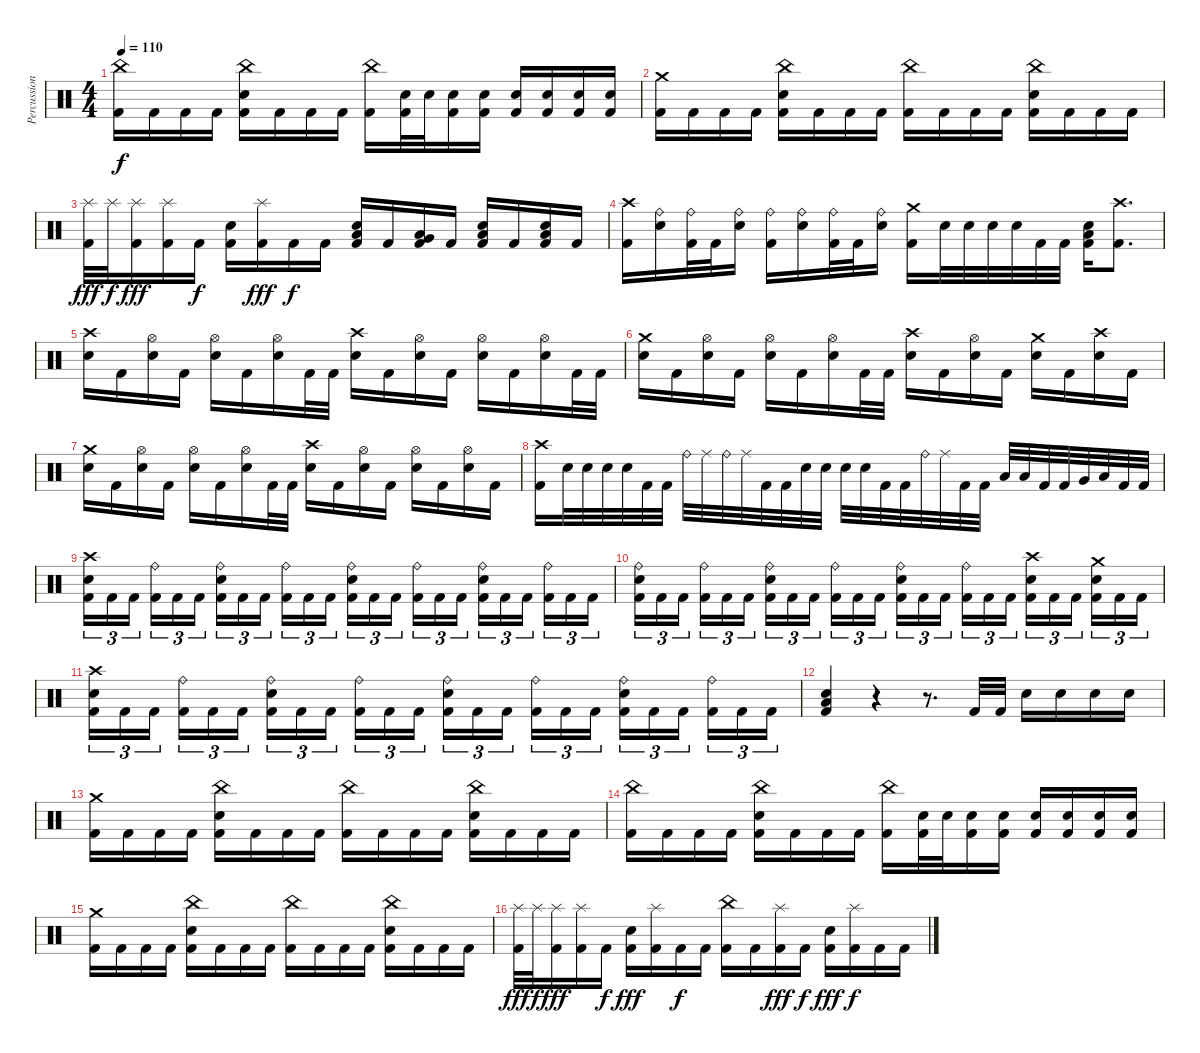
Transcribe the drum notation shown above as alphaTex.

\track ("Percussion" "Percussion") {instrument percussion}
\staff {score}
\articulation defaults
\ts (4 4)
\tempo 110
\clef neutral
\ks c
("China (hit)" "Kick (hit) 2").16{dy f} "Kick (hit) 2".16 "Kick (hit) 2".16 "Kick (hit) 2".16 ("China (hit)" "Electric Snare (hit)" "Kick (hit) 2").16 "Kick (hit) 2".16 "Kick (hit) 2".16 "Kick (hit) 2".16 ("China (hit)" "Kick (hit) 2").16 ("Electric Snare (hit)" "Kick (hit) 2").32 "Electric Snare (hit)".32 ("Electric Snare (hit)" "Kick (hit) 2").16 ("Electric Snare (hit)" "Kick (hit) 2").16 ("Electric Snare (hit)" "Kick (hit) 2").16 ("Electric Snare (hit)" "Kick (hit) 2").16 ("Electric Snare (hit)" "Kick (hit) 2").16 ("Electric Snare (hit)" "Kick (hit) 2").16 |
("Crash medium (hit)" "Kick (hit) 2").16 "Kick (hit) 2".16 "Kick (hit) 2".16 "Kick (hit) 2".16 ("China (hit)" "Electric Snare (hit)" "Kick (hit) 2").16 "Kick (hit) 2".16 "Kick (hit) 2".16 "Kick (hit) 2".16 ("China (hit)" "Kick (hit) 2").16 "Kick (hit) 2".16 "Kick (hit) 2".16 "Kick (hit) 2".16 ("China (hit)" "Electric Snare (hit)" "Kick (hit) 2").16 "Kick (hit) 2".16 "Kick (hit) 2".16 "Kick (hit) 2".16 |
("Splash (hit)" "Kick (hit) 2").32{dy fff} "Splash (hit)".32{dy f} ("Splash (hit)" "Kick (hit) 2").16{dy fff} ("Splash (hit)" "Kick (hit) 2").16 "Kick (hit) 2".16{dy f} ("Electric Snare (hit)" "Kick (hit) 2").16 ("Splash (hit)" "Kick (hit) 2").16{dy fff} "Kick (hit) 2".16{dy f} "Kick (hit) 2".16 ("Electric Snare (hit)" "Low Tom (hit)" "Kick (hit) 2").16 "Kick (hit) 2".16 ("Very Low Tom (hit)" "Low Floor Tom (hit)" "Kick (hit) 2").16 "Kick (hit) 2".16 ("Electric Snare (hit)" "Low Floor Tom (hit)" "Kick (hit) 2").16 "Kick (hit) 2".16 ("Electric Snare (hit)" "Low Floor Tom (hit)" "Kick (hit) 2").16 "Kick (hit) 2".16 |
("Crash high (hit)" "Kick (hit) 2").16 ("Ride (bell)" "Electric Snare (hit)").16 ("Ride (bell)" "Kick (hit) 2").32 "Kick (hit) 2".32 ("Ride (bell)" "Electric Snare (hit)").16 ("Ride (bell)" "Kick (hit) 2").16 ("Ride (bell)" "Electric Snare (hit)").16 ("Ride (bell)" "Kick (hit) 2").32 "Kick (hit) 2".32 ("Ride (bell)" "Electric Snare (hit)").16 ("Crash medium (hit)" "Kick (hit) 2").16 "Electric Snare (hit)".32 "Electric Snare (hit)".32 "Electric Snare (hit)".32 "Electric Snare (hit)".32 "Kick (hit) 2".32 "Kick (hit) 2".32 ("Electric Snare (hit)" "Low Floor Tom (hit)" "Kick (hit) 2").16 ("Crash high (hit)" "Kick (hit) 2").8{d} |
("Crash high (hit)" "Electric Snare (hit)").16 "Kick (hit) 2".16 ("Hi-Hat (open)" "Electric Snare (hit)").16 "Kick (hit) 2".16 ("Hi-Hat (open)" "Electric Snare (hit)").16 "Kick (hit) 2".16 ("Hi-Hat (open)" "Electric Snare (hit)").16 "Kick (hit) 2".32 "Kick (hit) 2".32 ("Crash high (hit)" "Electric Snare (hit)").16 "Kick (hit) 2".16 ("Hi-Hat (open)" "Electric Snare (hit)").16 "Kick (hit) 2".16 ("Hi-Hat (open)" "Electric Snare (hit)").16 "Kick (hit) 2".16 ("Hi-Hat (open)" "Electric Snare (hit)").16 "Kick (hit) 2".32 "Kick (hit) 2".32 |
("Crash medium (hit)" "Electric Snare (hit)").16 "Kick (hit) 2".16 ("Hi-Hat (open)" "Electric Snare (hit)").16 "Kick (hit) 2".16 ("Hi-Hat (open)" "Electric Snare (hit)").16 "Kick (hit) 2".16 ("Hi-Hat (open)" "Electric Snare (hit)").16 "Kick (hit) 2".32 "Kick (hit) 2".32 ("Crash high (hit)" "Electric Snare (hit)").16 "Kick (hit) 2".16 ("Hi-Hat (open)" "Electric Snare (hit)").16 "Kick (hit) 2".16 ("Crash medium (hit)" "Electric Snare (hit)").16 "Kick (hit) 2".16 ("Crash high (hit)" "Electric Snare (hit)").16 "Kick (hit) 2".16 |
("Crash medium (hit)" "Electric Snare (hit)").16 "Kick (hit) 2".16 ("Hi-Hat (open)" "Electric Snare (hit)").16 "Kick (hit) 2".16 ("Hi-Hat (open)" "Electric Snare (hit)").16 "Kick (hit) 2".16 ("Hi-Hat (open)" "Electric Snare (hit)").16 "Kick (hit) 2".32 "Kick (hit) 2".32 ("Crash high (hit)" "Electric Snare (hit)").16 "Kick (hit) 2".16 ("Hi-Hat (open)" "Electric Snare (hit)").16 "Kick (hit) 2".16 ("Hi-Hat (open)" "Electric Snare (hit)").16 "Kick (hit) 2".16 ("Hi-Hat (open)" "Electric Snare (hit)").16 "Kick (hit) 2".16 |
("Crash high (hit)" "Kick (hit) 2").16 "Electric Snare (hit)".32 "Electric Snare (hit)".32 "Electric Snare (hit)".32 "Electric Snare (hit)".32 "Kick (hit) 2".32 "Kick (hit) 2".32 "Ride (bell)".32 "Ride (middle)".32 "Ride (bell)".32 "Ride (middle)".32 "Kick (hit) 2".32 "Kick (hit) 2".32 "Electric Snare (hit)".32 "Electric Snare (hit)".32 "Electric Snare (hit)".32 "Electric Snare (hit)".32 "Kick (hit) 2".32 "Kick (hit) 2".32 "Ride (bell)".32 "Ride (middle)".32 "Kick (hit) 2".32 "Kick (hit) 2".32 "Low Tom (hit)".32 "Low Floor Tom (hit)".32 "Kick (hit) 2".32 "Kick (hit) 2".32 "Very Low Tom (hit)".32 "Low Floor Tom (hit)".32 "Kick (hit) 2".32 "Kick (hit) 2".32 |
("Crash high (hit)" "Electric Snare (hit)" "Kick (hit) 2").16{tu (3 2)} "Kick (hit) 2".16{tu (3 2)} "Kick (hit) 2".16{tu (3 2) beam splitsecondary} ("Ride (bell)" "Kick (hit) 2").16{tu (3 2)} "Kick (hit) 2".16{tu (3 2)} "Kick (hit) 2".16{tu (3 2)} ("Ride (bell)" "Electric Snare (hit)" "Kick (hit) 2").16{tu (3 2)} "Kick (hit) 2".16{tu (3 2)} "Kick (hit) 2".16{tu (3 2) beam splitsecondary} ("Ride (bell)" "Kick (hit) 2").16{tu (3 2)} "Kick (hit) 2".16{tu (3 2)} "Kick (hit) 2".16{tu (3 2)} ("Ride (bell)" "Electric Snare (hit)" "Kick (hit) 2").16{tu (3 2)} "Kick (hit) 2".16{tu (3 2)} "Kick (hit) 2".16{tu (3 2) beam splitsecondary} ("Ride (bell)" "Kick (hit) 2").16{tu (3 2)} "Kick (hit) 2".16{tu (3 2)} "Kick (hit) 2".16{tu (3 2)} ("Ride (bell)" "Electric Snare (hit)" "Kick (hit) 2").16{tu (3 2)} "Kick (hit) 2".16{tu (3 2)} "Kick (hit) 2".16{tu (3 2) beam splitsecondary} ("Ride (bell)" "Kick (hit) 2").16{tu (3 2)} "Kick (hit) 2".16{tu (3 2)} "Kick (hit) 2".16{tu (3 2)} |
("Ride (bell)" "Electric Snare (hit)" "Kick (hit) 2").16{tu (3 2)} "Kick (hit) 2".16{tu (3 2)} "Kick (hit) 2".16{tu (3 2) beam splitsecondary} ("Ride (bell)" "Kick (hit) 2").16{tu (3 2)} "Kick (hit) 2".16{tu (3 2)} "Kick (hit) 2".16{tu (3 2)} ("Ride (bell)" "Electric Snare (hit)" "Kick (hit) 2").16{tu (3 2)} "Kick (hit) 2".16{tu (3 2)} "Kick (hit) 2".16{tu (3 2) beam splitsecondary} ("Ride (bell)" "Kick (hit) 2").16{tu (3 2)} "Kick (hit) 2".16{tu (3 2)} "Kick (hit) 2".16{tu (3 2)} ("Ride (bell)" "Electric Snare (hit)" "Kick (hit) 2").16{tu (3 2)} "Kick (hit) 2".16{tu (3 2)} "Kick (hit) 2".16{tu (3 2) beam splitsecondary} ("Ride (bell)" "Kick (hit) 2").16{tu (3 2)} "Kick (hit) 2".16{tu (3 2)} "Kick (hit) 2".16{tu (3 2)} ("Crash high (hit)" "Electric Snare (hit)" "Kick (hit) 2").16{tu (3 2)} "Kick (hit) 2".16{tu (3 2)} "Kick (hit) 2".16{tu (3 2) beam splitsecondary} ("Crash medium (hit)" "Electric Snare (hit)" "Kick (hit) 2").16{tu (3 2)} "Kick (hit) 2".16{tu (3 2)} "Kick (hit) 2".16{tu (3 2)} |
("Crash high (hit)" "Electric Snare (hit)" "Kick (hit) 2").16{tu (3 2)} "Kick (hit) 2".16{tu (3 2)} "Kick (hit) 2".16{tu (3 2) beam splitsecondary} ("Ride (bell)" "Kick (hit) 2").16{tu (3 2)} "Kick (hit) 2".16{tu (3 2)} "Kick (hit) 2".16{tu (3 2)} ("Ride (bell)" "Electric Snare (hit)" "Kick (hit) 2").16{tu (3 2)} "Kick (hit) 2".16{tu (3 2)} "Kick (hit) 2".16{tu (3 2) beam splitsecondary} ("Ride (bell)" "Kick (hit) 2").16{tu (3 2)} "Kick (hit) 2".16{tu (3 2)} "Kick (hit) 2".16{tu (3 2)} ("Ride (bell)" "Electric Snare (hit)" "Kick (hit) 2").16{tu (3 2)} "Kick (hit) 2".16{tu (3 2)} "Kick (hit) 2".16{tu (3 2) beam splitsecondary} ("Ride (bell)" "Kick (hit) 2").16{tu (3 2)} "Kick (hit) 2".16{tu (3 2)} "Kick (hit) 2".16{tu (3 2)} ("Ride (bell)" "Electric Snare (hit)" "Kick (hit) 2").16{tu (3 2)} "Kick (hit) 2".16{tu (3 2)} "Kick (hit) 2".16{tu (3 2) beam splitsecondary} ("Ride (bell)" "Kick (hit) 2").16{tu (3 2)} "Kick (hit) 2".16{tu (3 2)} "Kick (hit) 2".16{tu (3 2)} |
("Electric Snare (hit)" "Low Floor Tom (hit)" "Kick (hit) 2").4 r.4 r.8{d} "Kick (hit) 2".32 "Kick (hit) 2".32 "Electric Snare (hit)".16 "Electric Snare (hit)".16 "Electric Snare (hit)".16 "Electric Snare (hit)".16 |
("Crash medium (hit)" "Kick (hit) 2").16 "Kick (hit) 2".16 "Kick (hit) 2".16 "Kick (hit) 2".16 ("China (hit)" "Electric Snare (hit)" "Kick (hit) 2").16 "Kick (hit) 2".16 "Kick (hit) 2".16 "Kick (hit) 2".16 ("China (hit)" "Kick (hit) 2").16 "Kick (hit) 2".16 "Kick (hit) 2".16 "Kick (hit) 2".16 ("China (hit)" "Electric Snare (hit)" "Kick (hit) 2").16 "Kick (hit) 2".16 "Kick (hit) 2".16 "Kick (hit) 2".16 |
("China (hit)" "Kick (hit) 2").16 "Kick (hit) 2".16 "Kick (hit) 2".16 "Kick (hit) 2".16 ("China (hit)" "Electric Snare (hit)" "Kick (hit) 2").16 "Kick (hit) 2".16 "Kick (hit) 2".16 "Kick (hit) 2".16 ("China (hit)" "Kick (hit) 2").16 ("Electric Snare (hit)" "Kick (hit) 2").32 "Electric Snare (hit)".32 ("Electric Snare (hit)" "Kick (hit) 2").16 ("Electric Snare (hit)" "Kick (hit) 2").16 ("Electric Snare (hit)" "Kick (hit) 2").16 ("Electric Snare (hit)" "Kick (hit) 2").16 ("Electric Snare (hit)" "Kick (hit) 2").16 ("Electric Snare (hit)" "Kick (hit) 2").16 |
("Crash medium (hit)" "Kick (hit) 2").16 "Kick (hit) 2".16 "Kick (hit) 2".16 "Kick (hit) 2".16 ("China (hit)" "Electric Snare (hit)" "Kick (hit) 2").16 "Kick (hit) 2".16 "Kick (hit) 2".16 "Kick (hit) 2".16 ("China (hit)" "Kick (hit) 2").16 "Kick (hit) 2".16 "Kick (hit) 2".16 "Kick (hit) 2".16 ("China (hit)" "Electric Snare (hit)" "Kick (hit) 2").16 "Kick (hit) 2".16 "Kick (hit) 2".16 "Kick (hit) 2".16 |
("Splash (hit)" "Kick (hit) 2").32{dy fff} "Splash (hit)".32{dy f} ("Splash (hit)" "Kick (hit) 2").16{dy fff} ("Splash (hit)" "Kick (hit) 2").16 "Kick (hit) 2".16{dy f} ("Electric Snare (hit)" "Kick (hit) 2").16{dy fff} ("Splash (hit)" "Kick (hit) 2").16 "Kick (hit) 2".16{dy f} "Kick (hit) 2".16 ("China (hit)" "Kick (hit) 2").16 "Kick (hit) 2".16 ("Splash (hit)" "Kick (hit) 2").16{dy fff} "Kick (hit) 2".16{dy f} ("Electric Snare (hit)" "Kick (hit) 2").16{dy fff} ("Splash (hit)" "Kick (hit) 2").16{dy f} "Kick (hit) 2".16 "Kick (hit) 2".16
